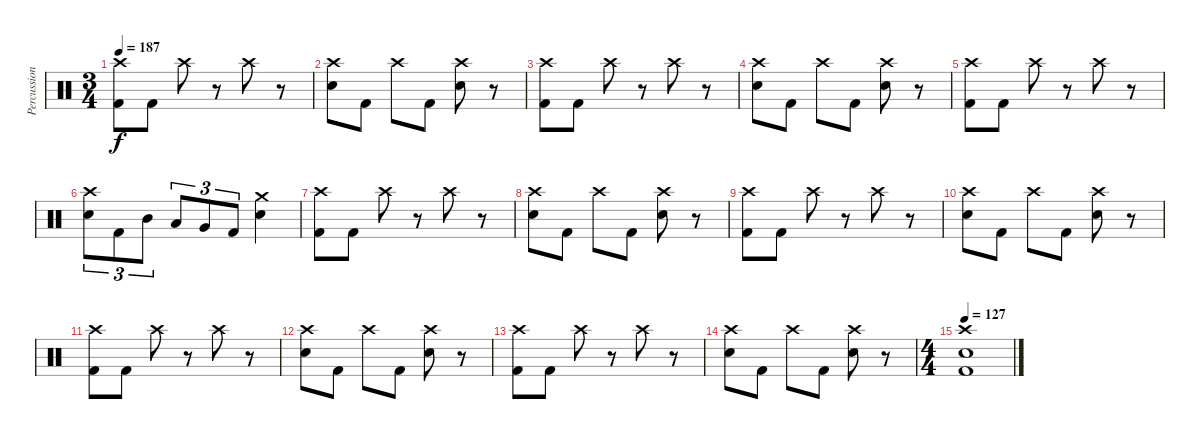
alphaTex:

\track ("Percussion" "Percussion") {instrument percussion}
\staff {score}
\articulation defaults
\ts (3 4)
\tempo 187
\clef neutral
\ks c
("Crash high (hit)" "Kick (hit) 2").8{dy f} "Kick (hit) 2".8 "Crash high (hit)".8 r.8 "Crash high (hit)".8 r.8 |
("Crash high (hit)" "Electric Snare (hit)").8 "Kick (hit) 2".8 "Crash high (hit)".8 "Kick (hit) 2".8 ("Crash high (hit)" "Electric Snare (hit)").8 r.8 |
("Crash high (hit)" "Kick (hit) 2").8 "Kick (hit) 2".8 "Crash high (hit)".8 r.8 "Crash high (hit)".8 r.8 |
("Crash high (hit)" "Electric Snare (hit)").8 "Kick (hit) 2".8 "Crash high (hit)".8 "Kick (hit) 2".8 ("Crash high (hit)" "Electric Snare (hit)").8 r.8 |
("Crash high (hit)" "Kick (hit) 2").8 "Kick (hit) 2".8 "Crash high (hit)".8 r.8 "Crash high (hit)".8 r.8 |
("Crash high (hit)" "Electric Snare (hit)").8{tu (3 2)} "Kick (hit) 2".8{tu (3 2)} "Mid Tom (hit)".8{tu (3 2)} "Low Tom (hit)".8{tu (3 2)} "Very Low Tom (hit)".8{tu (3 2)} "Kick (hit) 2".8{tu (3 2)} ("Crash medium (hit)" "Electric Snare (hit)").4 |
("Crash high (hit)" "Kick (hit) 2").8 "Kick (hit) 2".8 "Crash high (hit)".8 r.8 "Crash high (hit)".8 r.8 |
("Crash high (hit)" "Electric Snare (hit)").8 "Kick (hit) 2".8 "Crash high (hit)".8 "Kick (hit) 2".8 ("Crash high (hit)" "Electric Snare (hit)").8 r.8 |
("Crash high (hit)" "Kick (hit) 2").8 "Kick (hit) 2".8 "Crash high (hit)".8 r.8 "Crash high (hit)".8 r.8 |
("Crash high (hit)" "Electric Snare (hit)").8 "Kick (hit) 2".8 "Crash high (hit)".8 "Kick (hit) 2".8 ("Crash high (hit)" "Electric Snare (hit)").8 r.8 |
("Crash high (hit)" "Kick (hit) 2").8 "Kick (hit) 2".8 "Crash high (hit)".8 r.8 "Crash high (hit)".8 r.8 |
("Crash high (hit)" "Electric Snare (hit)").8 "Kick (hit) 2".8 "Crash high (hit)".8 "Kick (hit) 2".8 ("Crash high (hit)" "Electric Snare (hit)").8 r.8 |
("Crash high (hit)" "Kick (hit) 2").8 "Kick (hit) 2".8 "Crash high (hit)".8 r.8 "Crash high (hit)".8 r.8 |
("Crash high (hit)" "Electric Snare (hit)").8 "Kick (hit) 2".8 "Crash high (hit)".8 "Kick (hit) 2".8 ("Crash high (hit)" "Electric Snare (hit)").8 r.8 |
\ts (4 4)
\tempo 127
("Crash high (hit)" "Electric Snare (hit)" "Kick (hit) 2").1
